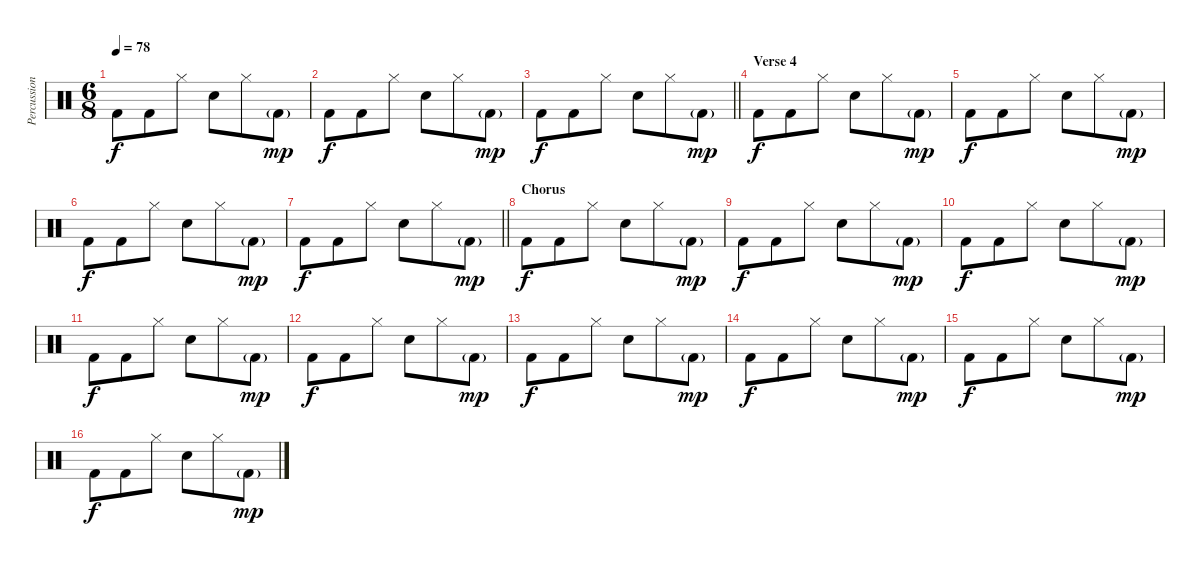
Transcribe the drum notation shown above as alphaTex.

\track ("Percussion" "Percussion") {instrument percussion}
\staff {score}
\articulation defaults
\ts (6 8)
\tempo 78
\clef neutral
\ks c "Kick (hit) 2".8{dy f} "Kick (hit) 2".8 "Hi-Hat (closed)".8 "Snare (hit) 2".8 "Hi-Hat (closed)".8 "Kick (hit) 2"{g}.8{dy mp}
|
"Kick (hit) 2".8{dy f} "Kick (hit) 2".8 "Hi-Hat (closed)".8 "Snare (hit) 2".8 "Hi-Hat (closed)".8 "Kick (hit) 2"{g}.8{dy mp} |
\barLineRight lightlight "Kick (hit) 2".8{dy f} "Kick (hit) 2".8 "Hi-Hat (closed)".8 "Snare (hit) 2".8 "Hi-Hat (closed)".8 "Kick (hit) 2"{g}.8{dy mp}
|
\section ("" "Verse 4")
"Kick (hit) 2".8{dy f} "Kick (hit) 2".8 "Hi-Hat (closed)".8 "Snare (hit) 2".8 "Hi-Hat (closed)".8 "Kick (hit) 2"{g}.8{dy mp} |
"Kick (hit) 2".8{dy f} "Kick (hit) 2".8 "Hi-Hat (closed)".8 "Snare (hit) 2".8 "Hi-Hat (closed)".8 "Kick (hit) 2"{g}.8{dy mp} |
"Kick (hit) 2".8{dy f} "Kick (hit) 2".8 "Hi-Hat (closed)".8 "Snare (hit) 2".8 "Hi-Hat (closed)".8 "Kick (hit) 2"{g}.8{dy mp} |
\barLineRight lightlight "Kick (hit) 2".8{dy f} "Kick (hit) 2".8 "Hi-Hat (closed)".8 "Snare (hit) 2".8 "Hi-Hat (closed)".8 "Kick (hit) 2"{g}.8{dy mp}
|
\section ("" "Chorus")
"Kick (hit) 2".8{dy f} "Kick (hit) 2".8 "Hi-Hat (closed)".8 "Snare (hit) 2".8 "Hi-Hat (closed)".8 "Kick (hit) 2"{g}.8{dy mp} |
"Kick (hit) 2".8{dy f} "Kick (hit) 2".8 "Hi-Hat (closed)".8 "Snare (hit) 2".8 "Hi-Hat (closed)".8 "Kick (hit) 2"{g}.8{dy mp} |
"Kick (hit) 2".8{dy f} "Kick (hit) 2".8 "Hi-Hat (closed)".8 "Snare (hit) 2".8 "Hi-Hat (closed)".8 "Kick (hit) 2"{g}.8{dy mp} |
"Kick (hit) 2".8{dy f} "Kick (hit) 2".8 "Hi-Hat (closed)".8 "Snare (hit) 2".8 "Hi-Hat (closed)".8 "Kick (hit) 2"{g}.8{dy mp} |
"Kick (hit) 2".8{dy f} "Kick (hit) 2".8 "Hi-Hat (closed)".8 "Snare (hit) 2".8 "Hi-Hat (closed)".8 "Kick (hit) 2"{g}.8{dy mp} |
"Kick (hit) 2".8{dy f} "Kick (hit) 2".8 "Hi-Hat (closed)".8 "Snare (hit) 2".8 "Hi-Hat (closed)".8 "Kick (hit) 2"{g}.8{dy mp} |
"Kick (hit) 2".8{dy f} "Kick (hit) 2".8 "Hi-Hat (closed)".8 "Snare (hit) 2".8 "Hi-Hat (closed)".8 "Kick (hit) 2"{g}.8{dy mp} |
"Kick (hit) 2".8{dy f} "Kick (hit) 2".8 "Hi-Hat (closed)".8 "Snare (hit) 2".8 "Hi-Hat (closed)".8 "Kick (hit) 2"{g}.8{dy mp} |
"Kick (hit) 2".8{dy f} "Kick (hit) 2".8 "Hi-Hat (closed)".8 "Snare (hit) 2".8 "Hi-Hat (closed)".8 "Kick (hit) 2"{g}.8{dy mp}
